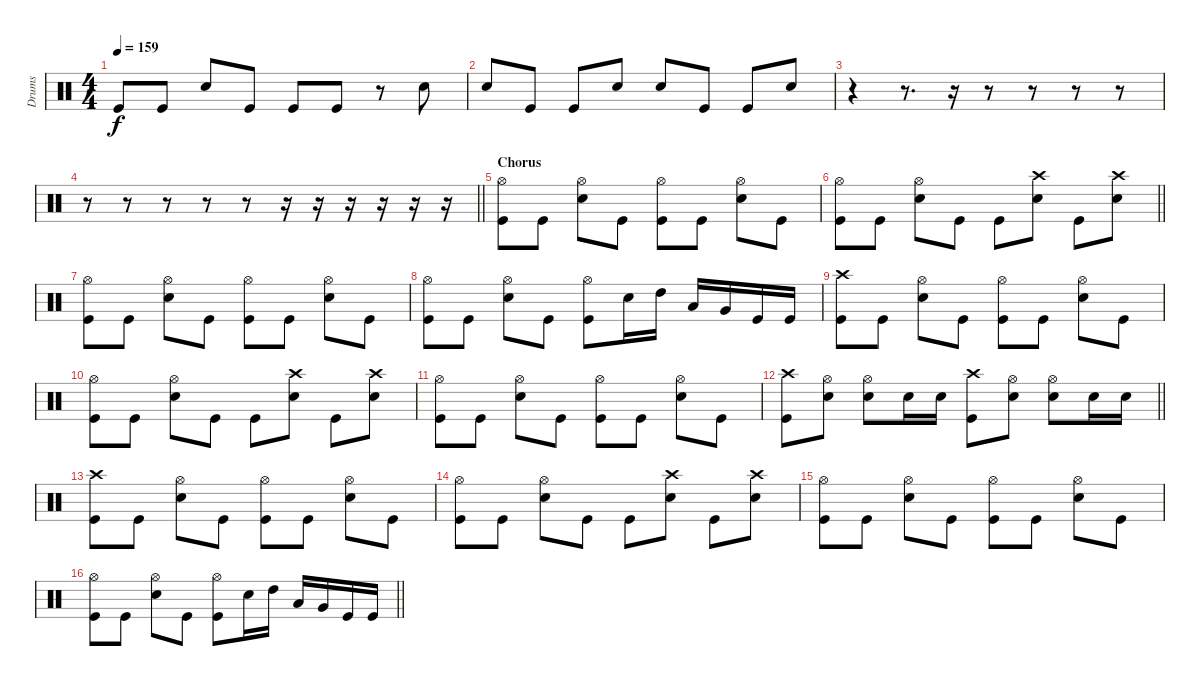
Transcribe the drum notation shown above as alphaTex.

\track ("Drums" "Drums") {instrument percussion}
\staff {score}
\articulation defaults
\ts (4 4)
\tempo 159
\clef neutral
\ks c "Kick (hit)".8{dy f} "Kick (hit)".8 "Snare (hit) 2".8 "Kick (hit)".8 "Kick (hit)".8 "Kick (hit)".8
r.8 "Snare (hit) 2".8 |
"Snare (hit) 2".8 "Kick (hit)".8 "Kick (hit)".8 "Snare (hit) 2".8 "Snare (hit) 2".8 "Kick (hit)".8 "Kick (hit)".8 "Snare (hit) 2".8 |
r.4 r.8{d} r.16 r.8 r.8 r.8 r.8 |
\barLineRight lightlight
r.8 r.8 r.8 r.8 r.8 r.16 r.16 r.16 r.16 r.16 r.16 |
\section ("" "Chorus")
("Hi-Hat (open)" "Kick (hit)").8 "Kick (hit)".8 ("Hi-Hat (open)" "Snare (hit) 2").8 "Kick (hit)".8 ("Hi-Hat (open)" "Kick (hit)").8 "Kick (hit)".8 ("Hi-Hat (open)" "Snare (hit) 2").8 "Kick (hit)".8 |
\barLineRight lightlight
("Hi-Hat (open)" "Kick (hit)").8 "Kick (hit)".8 ("Hi-Hat (open)" "Snare (hit) 2").8 "Kick (hit)".8 "Kick (hit)".8 ("Crash high (hit)" "Snare (hit) 2").8 "Kick (hit)".8 ("Crash high (hit)" "Snare (hit) 2").8 |
("Hi-Hat (open)" "Kick (hit)").8 "Kick (hit)".8 ("Hi-Hat (open)" "Snare (hit) 2").8 "Kick (hit)".8 ("Hi-Hat (open)" "Kick (hit)").8 "Kick (hit)".8 ("Hi-Hat (open)" "Snare (hit) 2").8 "Kick (hit)".8 |
("Hi-Hat (open)" "Kick (hit)").8 "Kick (hit)".8 ("Hi-Hat (open)" "Snare (hit) 2").8 "Kick (hit)".8 ("Hi-Hat (open)" "Kick (hit)").8 "Snare (hit) 2".16 "High Tom (hit)".16 "Low Tom (hit)".16 "Very Low Tom (hit)".16 "Kick (hit)".16 "Kick (hit)".16 |
("Crash high (hit)" "Kick (hit)").8 "Kick (hit)".8 ("Hi-Hat (open)" "Snare (hit) 2").8 "Kick (hit)".8 ("Hi-Hat (open)" "Kick (hit)").8 "Kick (hit)".8 ("Hi-Hat (open)" "Snare (hit) 2").8 "Kick (hit)".8 |
("Hi-Hat (open)" "Kick (hit)").8 "Kick (hit)".8 ("Hi-Hat (open)" "Snare (hit) 2").8 "Kick (hit)".8 "Kick (hit)".8 ("Crash high (hit)" "Snare (hit) 2").8 "Kick (hit)".8 ("Crash high (hit)" "Snare (hit) 2").8 |
("Hi-Hat (open)" "Kick (hit)").8 "Kick (hit)".8 ("Hi-Hat (open)" "Snare (hit) 2").8 "Kick (hit)".8 ("Hi-Hat (open)" "Kick (hit)").8 "Kick (hit)".8 ("Hi-Hat (open)" "Snare (hit) 2").8 "Kick (hit)".8 |
\barLineRight lightlight
("Crash high (hit)" "Kick (hit)").8 ("Hi-Hat (open)" "Snare (hit) 2").8 ("Hi-Hat (open)" "Snare (hit) 2").8 "Snare (hit) 2".16 "Snare (hit) 2".16 ("Crash high (hit)" "Kick (hit)").8 ("Hi-Hat (open)" "Snare (hit) 2").8 ("Hi-Hat (open)" "Snare (hit) 2").8 "Snare (hit) 2".16 "Snare (hit) 2".16 |
\section ("" "")
("Crash high (hit)" "Kick (hit)").8 "Kick (hit)".8 ("Hi-Hat (open)" "Snare (hit) 2").8 "Kick (hit)".8 ("Hi-Hat (open)" "Kick (hit)").8 "Kick (hit)".8 ("Hi-Hat (open)" "Snare (hit) 2").8 "Kick (hit)".8 |
("Hi-Hat (open)" "Kick (hit)").8 "Kick (hit)".8 ("Hi-Hat (open)" "Snare (hit) 2").8 "Kick (hit)".8 "Kick (hit)".8 ("Crash high (hit)" "Snare (hit) 2").8 "Kick (hit)".8 ("Crash high (hit)" "Snare (hit) 2").8 |
("Hi-Hat (open)" "Kick (hit)").8 "Kick (hit)".8 ("Hi-Hat (open)" "Snare (hit) 2").8 "Kick (hit)".8 ("Hi-Hat (open)" "Kick (hit)").8 "Kick (hit)".8 ("Hi-Hat (open)" "Snare (hit) 2").8 "Kick (hit)".8 |
\barLineRight lightlight
("Hi-Hat (open)" "Kick (hit)").8 "Kick (hit)".8 ("Hi-Hat (open)" "Snare (hit) 2").8 "Kick (hit)".8 ("Hi-Hat (open)" "Kick (hit)").8 "Snare (hit) 2".16 "High Tom (hit)".16 "Low Tom (hit)".16 "Very Low Tom (hit)".16 "Kick (hit)".16 "Kick (hit)".16
